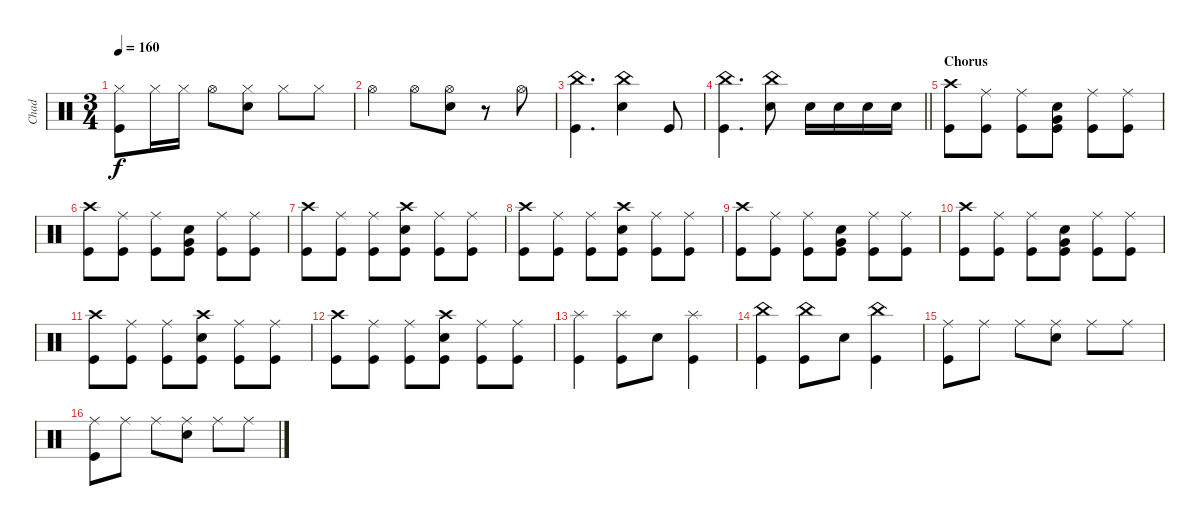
\track ("Chad" "Chad") {instrument percussion}
\staff {score}
\articulation defaults
\ts (3 4)
\tempo 160
\clef neutral
\ks c
("Hi-Hat (closed)" "Kick (hit)").8{dy f} "Hi-Hat (closed)".16 "Hi-Hat (closed)".16 "Hi-Hat (open)".8 ("Hi-Hat (closed)" "Snare (hit) 2").8 "Hi-Hat (closed)".8 "Hi-Hat (closed)".8 |
"Hi-Hat (open)".4 "Hi-Hat (open)".8 ("Hi-Hat (open)" "Snare (hit) 2").8 r.8 "Hi-Hat (open)".8 |
("China (hit)" "Kick (hit)").4{d} ("China (hit)" "Snare (hit) 2").4 "Kick (hit)".8 |
\barLineRight lightlight
("China (hit)" "Kick (hit)").4{d} ("China (hit)" "Snare (hit) 2").8 "Snare (hit) 2".16 "Snare (hit) 2".16 "Snare (hit) 2".16 "Snare (hit) 2".16 |
\section ("" "Chorus")
("Kick (hit)" "Crash high (hit)").8 ("Kick (hit)" "Ride (middle)").8 ("Kick (hit)" "Ride (middle)").8 ("Kick (hit)" "Snare (hit) 2" "Very Low Tom (hit)").8 ("Kick (hit)" "Ride (middle)").8 ("Kick (hit)" "Ride (middle)").8 |
("Kick (hit)" "Crash high (hit)").8 ("Kick (hit)" "Ride (middle)").8 ("Kick (hit)" "Ride (middle)").8 ("Kick (hit)" "Snare (hit) 2" "Very Low Tom (hit)").8 ("Kick (hit)" "Ride (middle)").8 ("Ride (middle)" "Kick (hit)").8 |
("Crash high (hit)" "Kick (hit)").8 ("Ride (middle)" "Kick (hit)").8 ("Ride (middle)" "Kick (hit)").8 ("Crash high (hit)" "Snare (hit) 2" "Kick (hit)").8 ("Ride (middle)" "Kick (hit)").8 ("Ride (middle)" "Kick (hit)").8 |
("Crash high (hit)" "Kick (hit)").8 ("Ride (middle)" "Kick (hit)").8 ("Ride (middle)" "Kick (hit)").8 ("Crash high (hit)" "Snare (hit) 2" "Kick (hit)").8 ("Ride (middle)" "Kick (hit)").8 ("Ride (middle)" "Kick (hit)").8 |
("Kick (hit)" "Crash high (hit)").8 ("Kick (hit)" "Ride (middle)").8 ("Kick (hit)" "Ride (middle)").8 ("Kick (hit)" "Snare (hit) 2" "Very Low Tom (hit)").8 ("Kick (hit)" "Ride (middle)").8 ("Kick (hit)" "Ride (middle)").8 |
("Kick (hit)" "Crash high (hit)").8 ("Kick (hit)" "Ride (middle)").8 ("Kick (hit)" "Ride (middle)").8 ("Kick (hit)" "Snare (hit) 2" "Very Low Tom (hit)").8 ("Kick (hit)" "Ride (middle)").8 ("Ride (middle)" "Kick (hit)").8 |
("Crash high (hit)" "Kick (hit)").8 ("Ride (middle)" "Kick (hit)").8 ("Ride (middle)" "Kick (hit)").8 ("Crash high (hit)" "Snare (hit) 2" "Kick (hit)").8 ("Ride (middle)" "Kick (hit)").8 ("Ride (middle)" "Kick (hit)").8 |
("Crash high (hit)" "Kick (hit)").8 ("Ride (middle)" "Kick (hit)").8 ("Ride (middle)" "Kick (hit)").8 ("Crash high (hit)" "Snare (hit) 2" "Kick (hit)").8 ("Ride (middle)" "Kick (hit)").8 ("Ride (middle)" "Kick (hit)").8 |
("Splash (hit)" "Kick (hit)").4 ("Splash (hit)" "Kick (hit)").8 "Snare (hit) 2".8 ("Splash (hit)" "Kick (hit)").4 |
("Kick (hit)" "China (hit)").4 ("China (hit)" "Kick (hit)").8 "Snare (hit) 2".8 ("China (hit)" "Kick (hit)").4 |
("Ride (middle)" "Kick (hit)").8 "Ride (middle)".8 "Ride (middle)".8 ("Ride (middle)" "Snare (hit) 2").8 "Ride (middle)".8 "Ride (middle)".8 |
("Ride (middle)" "Kick (hit)").8 "Ride (middle)".8 "Ride (middle)".8 ("Ride (middle)" "Snare (hit) 2").8 "Ride (middle)".8 "Ride (middle)".8
